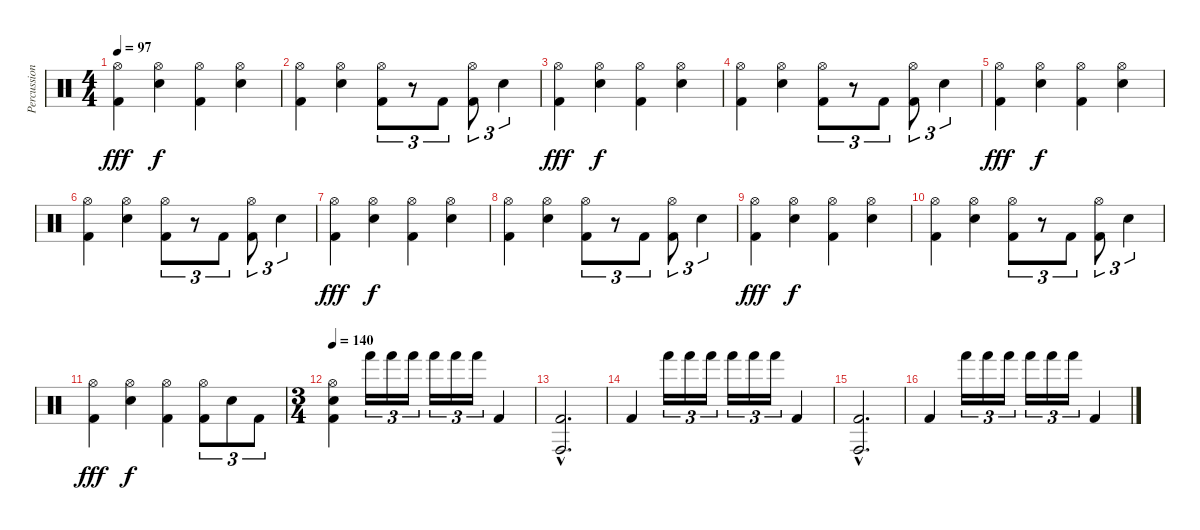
\track ("Percussion" "Percussion") {instrument percussion}
\staff {score}
\articulation defaults
\ts (4 4)
\tempo 97
\clef neutral
\ks c
("Hi-Hat (open)" "Kick (hit) 2").4{dy fff} ("Hi-Hat (open)" "Snare (hit) 2").4{dy f} ("Hi-Hat (open)" "Kick (hit) 2").4 ("Hi-Hat (open)" "Snare (hit) 2").4 |
("Hi-Hat (open)" "Kick (hit) 2").4 ("Hi-Hat (open)" "Snare (hit) 2").4 ("Hi-Hat (open)" "Kick (hit) 2").8{tu (3 2)} r.8{tu (3 2)} "Kick (hit) 2".8{tu (3 2)} ("Hi-Hat (open)" "Kick (hit) 2").8{tu (3 2)} "Snare (hit) 2".4{tu (3 2)} |
("Hi-Hat (open)" "Kick (hit) 2").4{dy fff} ("Hi-Hat (open)" "Snare (hit) 2").4{dy f} ("Hi-Hat (open)" "Kick (hit) 2").4 ("Hi-Hat (open)" "Snare (hit) 2").4 |
("Hi-Hat (open)" "Kick (hit) 2").4 ("Hi-Hat (open)" "Snare (hit) 2").4 ("Hi-Hat (open)" "Kick (hit) 2").8{tu (3 2)} r.8{tu (3 2)} "Kick (hit) 2".8{tu (3 2)} ("Hi-Hat (open)" "Kick (hit) 2").8{tu (3 2)} "Snare (hit) 2".4{tu (3 2)} |
("Hi-Hat (open)" "Kick (hit) 2").4{dy fff} ("Hi-Hat (open)" "Snare (hit) 2").4{dy f} ("Hi-Hat (open)" "Kick (hit) 2").4 ("Hi-Hat (open)" "Snare (hit) 2").4 |
("Hi-Hat (open)" "Kick (hit) 2").4 ("Hi-Hat (open)" "Snare (hit) 2").4 ("Hi-Hat (open)" "Kick (hit) 2").8{tu (3 2)} r.8{tu (3 2)} "Kick (hit) 2".8{tu (3 2)} ("Hi-Hat (open)" "Kick (hit) 2").8{tu (3 2)} "Snare (hit) 2".4{tu (3 2)} |
("Hi-Hat (open)" "Kick (hit) 2").4{dy fff} ("Hi-Hat (open)" "Snare (hit) 2").4{dy f} ("Hi-Hat (open)" "Kick (hit) 2").4 ("Hi-Hat (open)" "Snare (hit) 2").4 |
("Hi-Hat (open)" "Kick (hit) 2").4 ("Hi-Hat (open)" "Snare (hit) 2").4 ("Hi-Hat (open)" "Kick (hit) 2").8{tu (3 2)} r.8{tu (3 2)} "Kick (hit) 2".8{tu (3 2)} ("Hi-Hat (open)" "Kick (hit) 2").8{tu (3 2)} "Snare (hit) 2".4{tu (3 2)} |
("Hi-Hat (open)" "Kick (hit) 2").4{dy fff} ("Hi-Hat (open)" "Snare (hit) 2").4{dy f} ("Hi-Hat (open)" "Kick (hit) 2").4 ("Hi-Hat (open)" "Snare (hit) 2").4 |
("Hi-Hat (open)" "Kick (hit) 2").4 ("Hi-Hat (open)" "Snare (hit) 2").4 ("Hi-Hat (open)" "Kick (hit) 2").8{tu (3 2)} r.8{tu (3 2)} "Kick (hit) 2".8{tu (3 2)} ("Hi-Hat (open)" "Kick (hit) 2").8{tu (3 2)} "Snare (hit) 2".4{tu (3 2)} |
("Hi-Hat (open)" "Kick (hit) 2").4{dy fff} ("Hi-Hat (open)" "Snare (hit) 2").4{dy f} ("Hi-Hat (open)" "Kick (hit) 2").4 ("Hi-Hat (open)" "Kick (hit) 2").8{tu (3 2)} "Snare (hit) 2".8{tu (3 2)} "Kick (hit) 2".8{tu (3 2)} |
\ts (3 4)
\tempo 140
("Hi-Hat (open)" "Snare (hit) 2" "Kick (hit) 2").4{volume 7} "Hand (hit)".16{tu (3 2)} "Hand (hit)".16{tu (3 2)} "Hand (hit)".16{tu (3 2)} "Hand (hit)".16{tu (3 2)} "Hand (hit)".16{tu (3 2)} "Hand (hit)".16{tu (3 2)} "Kick (hit) 2".4 |
("Conga high (hit)"{hac} "Kick (hit) 2"{hac}).2{d} |
"Kick (hit) 2".4 "Hand (hit)".16{tu (3 2)} "Hand (hit)".16{tu (3 2)} "Hand (hit)".16{tu (3 2)} "Hand (hit)".16{tu (3 2)} "Hand (hit)".16{tu (3 2)} "Hand (hit)".16{tu (3 2)} "Kick (hit) 2".4 |
("Conga high (hit)"{hac} "Kick (hit) 2"{hac}).2{d} |
"Kick (hit) 2".4 "Hand (hit)".16{tu (3 2)} "Hand (hit)".16{tu (3 2)} "Hand (hit)".16{tu (3 2)} "Hand (hit)".16{tu (3 2)} "Hand (hit)".16{tu (3 2)} "Hand (hit)".16{tu (3 2)} "Kick (hit) 2".4
